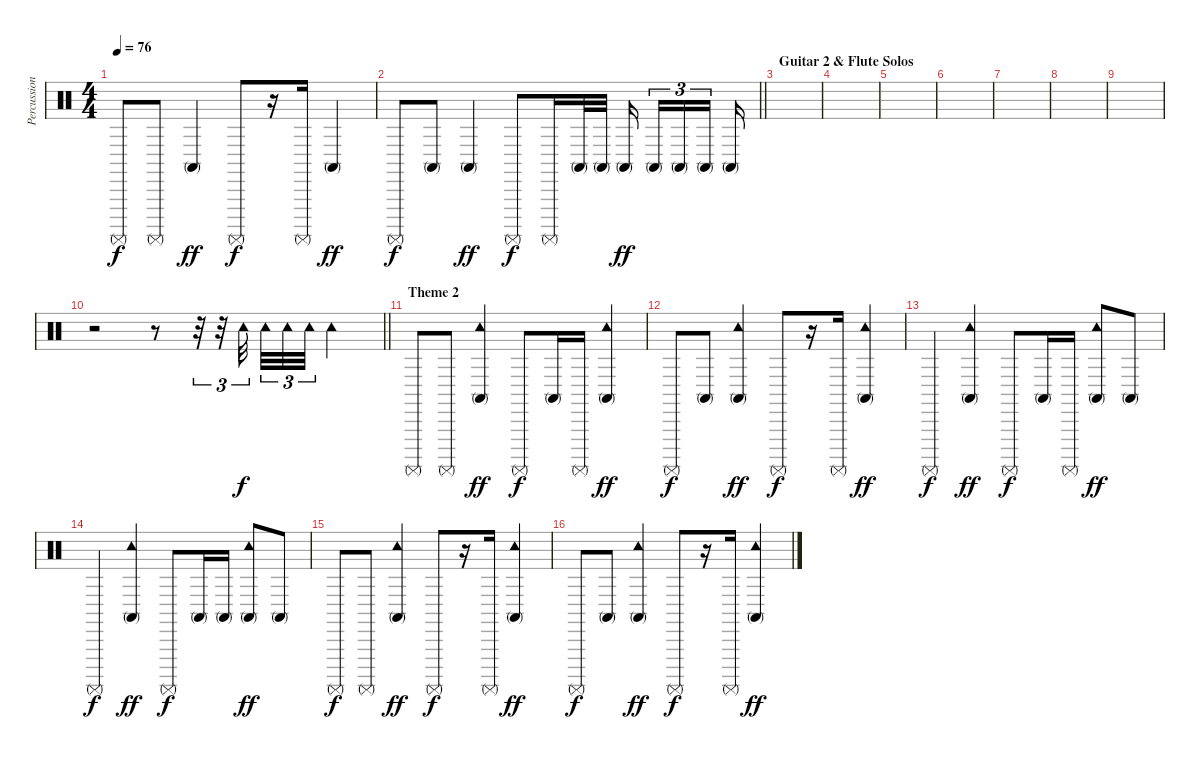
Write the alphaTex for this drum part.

\track ("Percussions" "Percussion") {instrument percussion}
\staff {score}
\articulation defaults
\ts (4 4)
\tempo 76
\clef neutral
\ks c "Surdo (mute)".8{dy f} "Surdo (mute)".8 "Conga high (mute)".4{dy ff} "Surdo (mute)".8{dy f}
r.16 "Surdo (mute)".16 "Conga high (mute)".4{dy ff} |
\barLineRight lightlight "Surdo (mute)".8{dy f} "Conga high (mute)".8 "Conga high (mute)".4{dy ff} "Surdo (mute)".8{dy f} "Surdo (mute)".16 "Conga high (mute)".32 "Conga high (mute)".32 "Conga high (mute)".16{dy ff beam splitsecondary} "Conga high (mute)".16{tu (3 2)} "Conga high (mute)".16{tu (3 2)} "Conga high (mute)".16{tu (3 2) beam splitsecondary} "Conga high (mute)".16
|
\section ("" "Guitar 2 & Flute Solos")
|
|
|
|
|
|
|
\barLineRight lightlight
r.2 r.8 r.32{tu (3 2)} r.32{tu (3 2)} "Tambourine (hit)".32{tu (3 2) dy f beam splitsecondary} "Tambourine (hit)".32{tu (3 2)} "Tambourine (hit)".32{tu (3 2)} "Tambourine (hit)".32{tu (3 2)} "Tambourine (hit)".4 |
\section ("" "Theme 2")
"Surdo (mute)".8 "Surdo (mute)".8 ("Tambourine (hit)" "Conga high (mute)").4{dy ff} "Surdo (mute)".8{dy f} "Conga high (mute)".16 "Surdo (mute)".16 ("Tambourine (hit)" "Conga high (mute)").4{dy ff} |
"Surdo (mute)".8{dy f} "Conga high (mute)".8 ("Tambourine (hit)" "Conga high (mute)").4{dy ff} "Surdo (mute)".8{dy f} r.16 "Surdo (mute)".16 ("Tambourine (hit)" "Conga high (mute)").4{dy ff} |
"Surdo (mute)".4{dy f} ("Tambourine (hit)" "Conga high (mute)").4{dy ff} "Surdo (mute)".8{dy f} "Conga high (mute)".16 "Surdo (mute)".16 ("Tambourine (hit)" "Conga high (mute)").8{dy ff} "Conga high (mute)".8 |
"Surdo (mute)".4{dy f} ("Tambourine (hit)" "Conga high (mute)").4{dy ff} "Surdo (mute)".8{dy f} "Conga high (mute)".16 "Conga high (mute)".16 ("Tambourine (hit)" "Conga high (mute)").8{dy ff} "Conga high (mute)".8 |
"Surdo (mute)".8{dy f} "Surdo (mute)".8 ("Tambourine (hit)" "Conga high (mute)").4{dy ff} "Surdo (mute)".8{dy f} r.16 "Surdo (mute)".16 ("Tambourine (hit)" "Conga high (mute)").4{dy ff} |
"Surdo (mute)".8{dy f} "Conga high (mute)".8 ("Tambourine (hit)" "Conga high (mute)").4{dy ff} "Surdo (mute)".8{dy f} r.16 "Surdo (mute)".16 ("Tambourine (hit)" "Conga high (mute)").4{dy ff}
